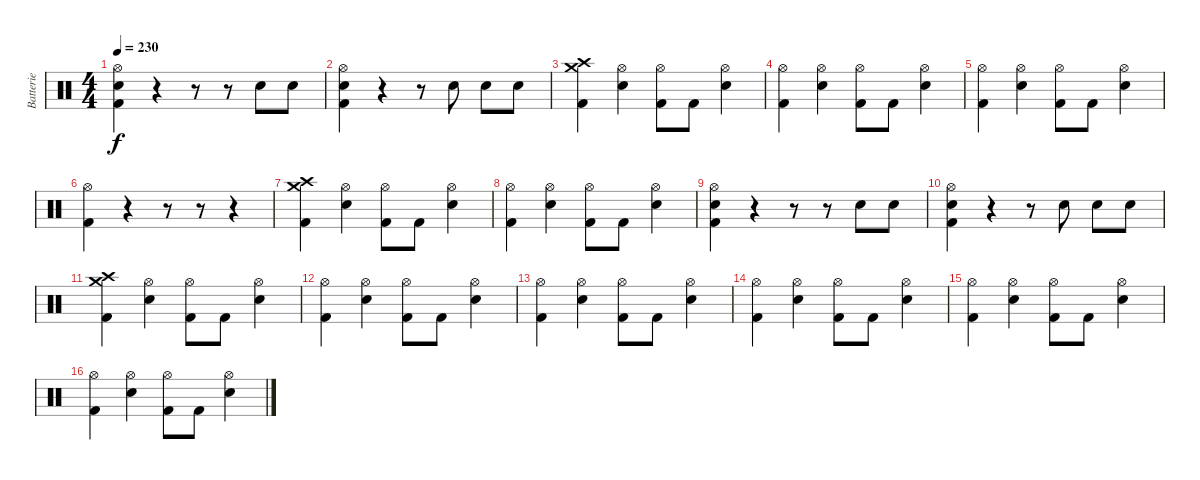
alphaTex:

\track ("Batterie" "Batterie") {instrument percussion}
\staff {score}
\articulation defaults
\ts (4 4)
\tempo 230
\clef neutral
\ks c
("Hi-Hat (open)" "Electric Snare (hit)" "Kick (hit) 2").4{dy f} r.4 r.8 r.8 "Electric Snare (hit)".8 "Electric Snare (hit)".8 |
("Hi-Hat (open)" "Electric Snare (hit)" "Kick (hit) 2").4 r.4 r.8 "Electric Snare (hit)".8 "Electric Snare (hit)".8 "Electric Snare (hit)".8 |
("Crash high (hit)" "Crash medium (hit)" "Kick (hit) 2").4 ("Hi-Hat (open)" "Electric Snare (hit)").4 ("Hi-Hat (open)" "Kick (hit) 2").8 "Kick (hit) 2".8 ("Hi-Hat (open)" "Electric Snare (hit)").4 |
("Hi-Hat (open)" "Kick (hit) 2").4 ("Hi-Hat (open)" "Electric Snare (hit)").4 ("Hi-Hat (open)" "Kick (hit) 2").8 "Kick (hit) 2".8 ("Hi-Hat (open)" "Electric Snare (hit)").4 |
("Hi-Hat (open)" "Kick (hit) 2").4 ("Hi-Hat (open)" "Electric Snare (hit)").4 ("Hi-Hat (open)" "Kick (hit) 2").8 "Kick (hit) 2".8 ("Hi-Hat (open)" "Electric Snare (hit)").4 |
("Hi-Hat (open)" "Kick (hit) 2").4 r.4 r.8 r.8 r.4 |
("Crash high (hit)" "Crash medium (hit)" "Kick (hit) 2").4 ("Hi-Hat (open)" "Electric Snare (hit)").4 ("Hi-Hat (open)" "Kick (hit) 2").8 "Kick (hit) 2".8 ("Hi-Hat (open)" "Electric Snare (hit)").4 |
("Hi-Hat (open)" "Kick (hit) 2").4 ("Hi-Hat (open)" "Electric Snare (hit)").4 ("Hi-Hat (open)" "Kick (hit) 2").8 "Kick (hit) 2".8 ("Hi-Hat (open)" "Electric Snare (hit)").4 |
("Hi-Hat (open)" "Electric Snare (hit)" "Kick (hit) 2").4 r.4 r.8 r.8 "Electric Snare (hit)".8 "Electric Snare (hit)".8 |
("Hi-Hat (open)" "Electric Snare (hit)" "Kick (hit) 2").4 r.4 r.8 "Electric Snare (hit)".8 "Electric Snare (hit)".8 "Electric Snare (hit)".8 |
("Crash high (hit)" "Crash medium (hit)" "Kick (hit) 2").4 ("Hi-Hat (open)" "Electric Snare (hit)").4 ("Hi-Hat (open)" "Kick (hit) 2").8 "Kick (hit) 2".8 ("Hi-Hat (open)" "Electric Snare (hit)").4 |
("Hi-Hat (open)" "Kick (hit) 2").4 ("Hi-Hat (open)" "Electric Snare (hit)").4 ("Hi-Hat (open)" "Kick (hit) 2").8 "Kick (hit) 2".8 ("Hi-Hat (open)" "Electric Snare (hit)").4 |
("Hi-Hat (open)" "Kick (hit) 2").4 ("Hi-Hat (open)" "Electric Snare (hit)").4 ("Hi-Hat (open)" "Kick (hit) 2").8 "Kick (hit) 2".8 ("Hi-Hat (open)" "Electric Snare (hit)").4 |
("Hi-Hat (open)" "Kick (hit) 2").4 ("Hi-Hat (open)" "Electric Snare (hit)").4 ("Hi-Hat (open)" "Kick (hit) 2").8 "Kick (hit) 2".8 ("Hi-Hat (open)" "Electric Snare (hit)").4 |
("Hi-Hat (open)" "Kick (hit) 2").4 ("Hi-Hat (open)" "Electric Snare (hit)").4 ("Hi-Hat (open)" "Kick (hit) 2").8 "Kick (hit) 2".8 ("Hi-Hat (open)" "Electric Snare (hit)").4 |
("Hi-Hat (open)" "Kick (hit) 2").4 ("Hi-Hat (open)" "Electric Snare (hit)").4 ("Hi-Hat (open)" "Kick (hit) 2").8 "Kick (hit) 2".8 ("Hi-Hat (open)" "Electric Snare (hit)").4
